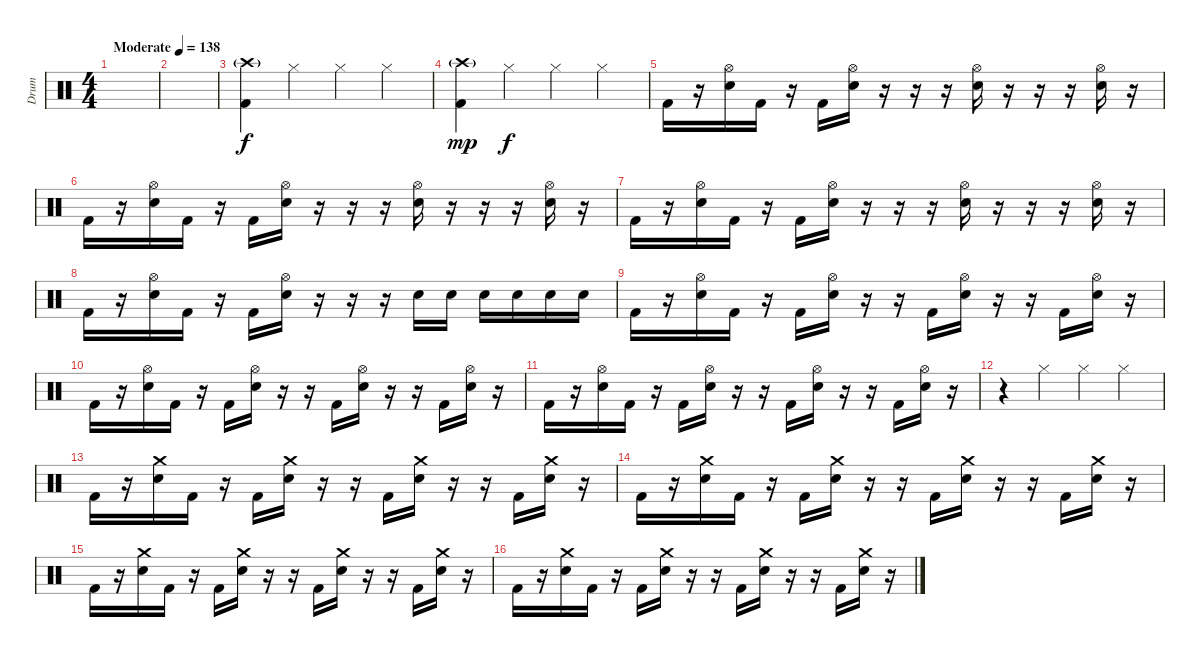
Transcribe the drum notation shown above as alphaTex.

\track ("Drum" "Drum") {instrument percussion}
\staff {score}
\articulation defaults
\ts (4 4)
\tempo (138 "Moderate")
\clef neutral
\ks c
|
|
("Crash high (hit)"{g} "Kick (hit) 2").4 "Hi-Hat (closed)".4{dy f} "Hi-Hat (closed)".4 "Hi-Hat (closed)".4 |
("Crash high (hit)"{g} "Kick (hit) 2").4{dy mp} "Hi-Hat (closed)".4{dy f} "Hi-Hat (closed)".4 "Hi-Hat (closed)".4 |
"Kick (hit) 2".16 r.16 ("Hi-Hat (open)" "Electric Snare (hit)").16 "Kick (hit) 2".16 r.16 "Kick (hit) 2".16 ("Hi-Hat (open)" "Electric Snare (hit)").16 r.16 r.16 r.16 ("Hi-Hat (open)" "Electric Snare (hit)").16 r.16 r.16 r.16 ("Hi-Hat (open)" "Electric Snare (hit)").16 r.16 |
"Kick (hit) 2".16 r.16 ("Hi-Hat (open)" "Electric Snare (hit)").16 "Kick (hit) 2".16 r.16 "Kick (hit) 2".16 ("Hi-Hat (open)" "Electric Snare (hit)").16 r.16 r.16 r.16 ("Hi-Hat (open)" "Electric Snare (hit)").16 r.16 r.16 r.16 ("Hi-Hat (open)" "Electric Snare (hit)").16 r.16 |
"Kick (hit) 2".16 r.16 ("Hi-Hat (open)" "Electric Snare (hit)").16 "Kick (hit) 2".16 r.16 "Kick (hit) 2".16 ("Hi-Hat (open)" "Electric Snare (hit)").16 r.16 r.16 r.16 ("Hi-Hat (open)" "Electric Snare (hit)").16 r.16 r.16 r.16 ("Hi-Hat (open)" "Electric Snare (hit)").16 r.16 |
"Kick (hit) 2".16 r.16 ("Hi-Hat (open)" "Electric Snare (hit)").16 "Kick (hit) 2".16 r.16 "Kick (hit) 2".16 ("Hi-Hat (open)" "Electric Snare (hit)").16 r.16 r.16 r.16 "Electric Snare (hit)".16 "Electric Snare (hit)".16 "Electric Snare (hit)".16 "Electric Snare (hit)".16 "Electric Snare (hit)".16 "Electric Snare (hit)".16 |
"Kick (hit) 2".16 r.16 ("Hi-Hat (open)" "Electric Snare (hit)").16 "Kick (hit) 2".16 r.16 "Kick (hit) 2".16 ("Hi-Hat (open)" "Electric Snare (hit)").16 r.16 r.16 "Kick (hit) 2".16 ("Hi-Hat (open)" "Electric Snare (hit)").16 r.16 r.16 "Kick (hit) 2".16 ("Hi-Hat (open)" "Electric Snare (hit)").16 r.16 |
"Kick (hit) 2".16 r.16 ("Hi-Hat (open)" "Electric Snare (hit)").16 "Kick (hit) 2".16 r.16 "Kick (hit) 2".16 ("Hi-Hat (open)" "Electric Snare (hit)").16 r.16 r.16 "Kick (hit) 2".16 ("Hi-Hat (open)" "Electric Snare (hit)").16 r.16 r.16 "Kick (hit) 2".16 ("Hi-Hat (open)" "Electric Snare (hit)").16 r.16 |
"Kick (hit) 2".16 r.16 ("Hi-Hat (open)" "Electric Snare (hit)").16 "Kick (hit) 2".16 r.16 "Kick (hit) 2".16 ("Hi-Hat (open)" "Electric Snare (hit)").16 r.16 r.16 "Kick (hit) 2".16 ("Hi-Hat (open)" "Electric Snare (hit)").16 r.16 r.16 "Kick (hit) 2".16 ("Hi-Hat (open)" "Electric Snare (hit)").16 r.16 |
r.4 "Hi-Hat (closed)".4 "Hi-Hat (closed)".4 "Hi-Hat (closed)".4 |
"Kick (hit) 2".16 r.16 ("Crash medium (hit)" "Electric Snare (hit)").16 "Kick (hit) 2".16 r.16 "Kick (hit) 2".16 ("Crash medium (hit)" "Electric Snare (hit)").16 r.16 r.16 "Kick (hit) 2".16 ("Crash medium (hit)" "Electric Snare (hit)").16 r.16 r.16 "Kick (hit) 2".16 ("Crash medium (hit)" "Electric Snare (hit)").16 r.16 |
"Kick (hit) 2".16 r.16 ("Crash medium (hit)" "Electric Snare (hit)").16 "Kick (hit) 2".16 r.16 "Kick (hit) 2".16 ("Crash medium (hit)" "Electric Snare (hit)").16 r.16 r.16 "Kick (hit) 2".16 ("Crash medium (hit)" "Electric Snare (hit)").16 r.16 r.16 "Kick (hit) 2".16 ("Crash medium (hit)" "Electric Snare (hit)").16 r.16 |
"Kick (hit) 2".16 r.16 ("Crash medium (hit)" "Electric Snare (hit)").16 "Kick (hit) 2".16 r.16 "Kick (hit) 2".16 ("Crash medium (hit)" "Electric Snare (hit)").16 r.16 r.16 "Kick (hit) 2".16 ("Crash medium (hit)" "Electric Snare (hit)").16 r.16 r.16 "Kick (hit) 2".16 ("Crash medium (hit)" "Electric Snare (hit)").16 r.16 |
"Kick (hit) 2".16 r.16 ("Crash medium (hit)" "Electric Snare (hit)").16 "Kick (hit) 2".16 r.16 "Kick (hit) 2".16 ("Crash medium (hit)" "Electric Snare (hit)").16 r.16 r.16 "Kick (hit) 2".16 ("Crash medium (hit)" "Electric Snare (hit)").16 r.16 r.16 "Kick (hit) 2".16 ("Crash medium (hit)" "Electric Snare (hit)").16 r.16
